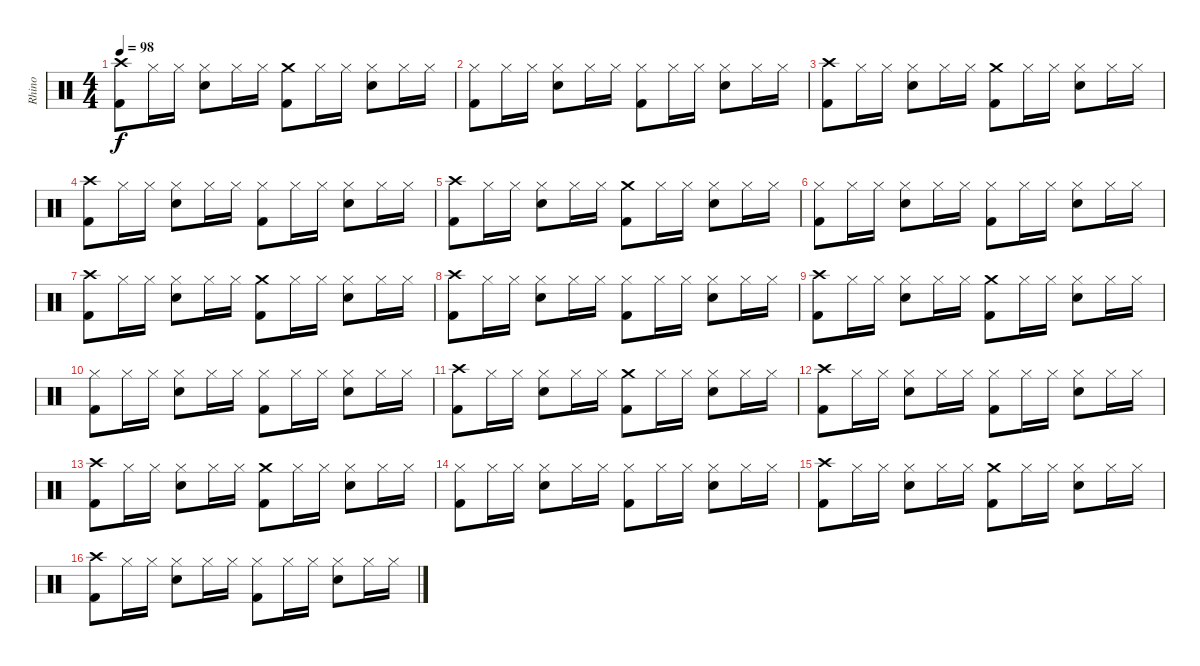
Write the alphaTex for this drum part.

\track ("Rhino" "Rhino") {instrument percussion}
\staff {score}
\articulation defaults
\ts (4 4)
\tempo 98
\clef neutral
\ks c
("Crash high (hit)" "Kick (hit) 2").8{dy f} "Hi-Hat (closed)".16 "Hi-Hat (closed)".16 ("Hi-Hat (closed)" "Snare (hit) 2").8 "Hi-Hat (closed)".16 "Hi-Hat (closed)".16 ("Crash medium (hit)" "Kick (hit) 2").8 "Hi-Hat (closed)".16 "Hi-Hat (closed)".16 ("Hi-Hat (closed)" "Snare (hit) 2").8 "Hi-Hat (closed)".16 "Hi-Hat (closed)".16 |
("Hi-Hat (closed)" "Kick (hit) 2").8 "Hi-Hat (closed)".16 "Hi-Hat (closed)".16 ("Hi-Hat (closed)" "Snare (hit) 2").8 "Hi-Hat (closed)".16 "Hi-Hat (closed)".16 ("Hi-Hat (closed)" "Kick (hit) 2").8 "Hi-Hat (closed)".16 "Hi-Hat (closed)".16 ("Hi-Hat (closed)" "Snare (hit) 2").8 "Hi-Hat (closed)".16 "Hi-Hat (closed)".16 |
("Crash high (hit)" "Kick (hit) 2").8 "Hi-Hat (closed)".16 "Hi-Hat (closed)".16 ("Hi-Hat (closed)" "Snare (hit) 2").8 "Hi-Hat (closed)".16 "Hi-Hat (closed)".16 ("Crash medium (hit)" "Kick (hit) 2").8 "Hi-Hat (closed)".16 "Hi-Hat (closed)".16 ("Hi-Hat (closed)" "Snare (hit) 2").8 "Hi-Hat (closed)".16 "Hi-Hat (closed)".16 |
("Crash high (hit)" "Kick (hit) 2").8 "Hi-Hat (closed)".16 "Hi-Hat (closed)".16 ("Hi-Hat (closed)" "Snare (hit) 2").8 "Hi-Hat (closed)".16 "Hi-Hat (closed)".16 ("Hi-Hat (closed)" "Kick (hit) 2").8 "Hi-Hat (closed)".16 "Hi-Hat (closed)".16 ("Hi-Hat (closed)" "Snare (hit) 2").8 "Hi-Hat (closed)".16 "Hi-Hat (closed)".16 |
("Crash high (hit)" "Kick (hit) 2").8 "Hi-Hat (closed)".16 "Hi-Hat (closed)".16 ("Hi-Hat (closed)" "Snare (hit) 2").8 "Hi-Hat (closed)".16 "Hi-Hat (closed)".16 ("Crash medium (hit)" "Kick (hit) 2").8 "Hi-Hat (closed)".16 "Hi-Hat (closed)".16 ("Hi-Hat (closed)" "Snare (hit) 2").8 "Hi-Hat (closed)".16 "Hi-Hat (closed)".16 |
("Hi-Hat (closed)" "Kick (hit) 2").8 "Hi-Hat (closed)".16 "Hi-Hat (closed)".16 ("Hi-Hat (closed)" "Snare (hit) 2").8 "Hi-Hat (closed)".16 "Hi-Hat (closed)".16 ("Hi-Hat (closed)" "Kick (hit) 2").8 "Hi-Hat (closed)".16 "Hi-Hat (closed)".16 ("Hi-Hat (closed)" "Snare (hit) 2").8 "Hi-Hat (closed)".16 "Hi-Hat (closed)".16 |
("Crash high (hit)" "Kick (hit) 2").8 "Hi-Hat (closed)".16 "Hi-Hat (closed)".16 ("Hi-Hat (closed)" "Snare (hit) 2").8 "Hi-Hat (closed)".16 "Hi-Hat (closed)".16 ("Crash medium (hit)" "Kick (hit) 2").8 "Hi-Hat (closed)".16 "Hi-Hat (closed)".16 ("Hi-Hat (closed)" "Snare (hit) 2").8 "Hi-Hat (closed)".16 "Hi-Hat (closed)".16 |
("Crash high (hit)" "Kick (hit) 2").8 "Hi-Hat (closed)".16 "Hi-Hat (closed)".16 ("Hi-Hat (closed)" "Snare (hit) 2").8 "Hi-Hat (closed)".16 "Hi-Hat (closed)".16 ("Hi-Hat (closed)" "Kick (hit) 2").8 "Hi-Hat (closed)".16 "Hi-Hat (closed)".16 ("Hi-Hat (closed)" "Snare (hit) 2").8 "Hi-Hat (closed)".16 "Hi-Hat (closed)".16 |
("Crash high (hit)" "Kick (hit) 2").8 "Hi-Hat (closed)".16 "Hi-Hat (closed)".16 ("Hi-Hat (closed)" "Snare (hit) 2").8 "Hi-Hat (closed)".16 "Hi-Hat (closed)".16 ("Crash medium (hit)" "Kick (hit) 2").8 "Hi-Hat (closed)".16 "Hi-Hat (closed)".16 ("Hi-Hat (closed)" "Snare (hit) 2").8 "Hi-Hat (closed)".16 "Hi-Hat (closed)".16 |
("Hi-Hat (closed)" "Kick (hit) 2").8 "Hi-Hat (closed)".16 "Hi-Hat (closed)".16 ("Hi-Hat (closed)" "Snare (hit) 2").8 "Hi-Hat (closed)".16 "Hi-Hat (closed)".16 ("Hi-Hat (closed)" "Kick (hit) 2").8 "Hi-Hat (closed)".16 "Hi-Hat (closed)".16 ("Hi-Hat (closed)" "Snare (hit) 2").8 "Hi-Hat (closed)".16 "Hi-Hat (closed)".16 |
("Crash high (hit)" "Kick (hit) 2").8 "Hi-Hat (closed)".16 "Hi-Hat (closed)".16 ("Hi-Hat (closed)" "Snare (hit) 2").8 "Hi-Hat (closed)".16 "Hi-Hat (closed)".16 ("Crash medium (hit)" "Kick (hit) 2").8 "Hi-Hat (closed)".16 "Hi-Hat (closed)".16 ("Hi-Hat (closed)" "Snare (hit) 2").8 "Hi-Hat (closed)".16 "Hi-Hat (closed)".16 |
("Crash high (hit)" "Kick (hit) 2").8 "Hi-Hat (closed)".16 "Hi-Hat (closed)".16 ("Hi-Hat (closed)" "Snare (hit) 2").8 "Hi-Hat (closed)".16 "Hi-Hat (closed)".16 ("Hi-Hat (closed)" "Kick (hit) 2").8 "Hi-Hat (closed)".16 "Hi-Hat (closed)".16 ("Hi-Hat (closed)" "Snare (hit) 2").8 "Hi-Hat (closed)".16 "Hi-Hat (closed)".16 |
("Crash high (hit)" "Kick (hit) 2").8 "Hi-Hat (closed)".16 "Hi-Hat (closed)".16 ("Hi-Hat (closed)" "Snare (hit) 2").8 "Hi-Hat (closed)".16 "Hi-Hat (closed)".16 ("Crash medium (hit)" "Kick (hit) 2").8 "Hi-Hat (closed)".16 "Hi-Hat (closed)".16 ("Hi-Hat (closed)" "Snare (hit) 2").8 "Hi-Hat (closed)".16 "Hi-Hat (closed)".16 |
("Hi-Hat (closed)" "Kick (hit) 2").8 "Hi-Hat (closed)".16 "Hi-Hat (closed)".16 ("Hi-Hat (closed)" "Snare (hit) 2").8 "Hi-Hat (closed)".16 "Hi-Hat (closed)".16 ("Hi-Hat (closed)" "Kick (hit) 2").8 "Hi-Hat (closed)".16 "Hi-Hat (closed)".16 ("Hi-Hat (closed)" "Snare (hit) 2").8 "Hi-Hat (closed)".16 "Hi-Hat (closed)".16 |
("Crash high (hit)" "Kick (hit) 2").8 "Hi-Hat (closed)".16 "Hi-Hat (closed)".16 ("Hi-Hat (closed)" "Snare (hit) 2").8 "Hi-Hat (closed)".16 "Hi-Hat (closed)".16 ("Crash medium (hit)" "Kick (hit) 2").8 "Hi-Hat (closed)".16 "Hi-Hat (closed)".16 ("Hi-Hat (closed)" "Snare (hit) 2").8 "Hi-Hat (closed)".16 "Hi-Hat (closed)".16 |
("Crash high (hit)" "Kick (hit) 2").8 "Hi-Hat (closed)".16 "Hi-Hat (closed)".16 ("Hi-Hat (closed)" "Snare (hit) 2").8 "Hi-Hat (closed)".16 "Hi-Hat (closed)".16 ("Hi-Hat (closed)" "Kick (hit) 2").8 "Hi-Hat (closed)".16 "Hi-Hat (closed)".16 ("Hi-Hat (closed)" "Snare (hit) 2").8 "Hi-Hat (closed)".16 "Hi-Hat (closed)".16
